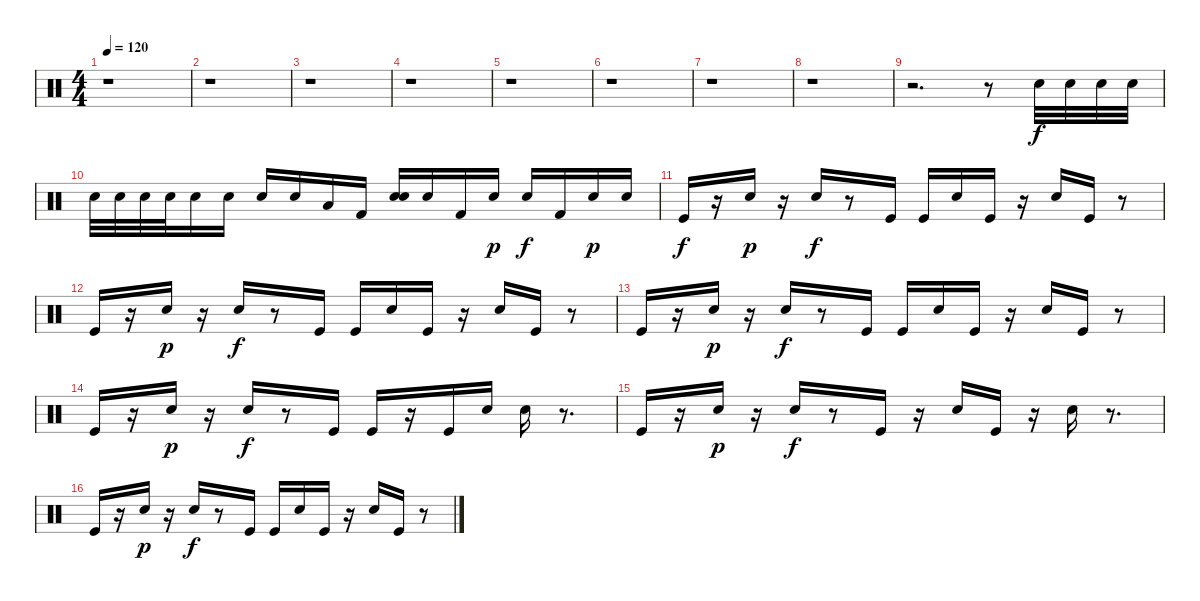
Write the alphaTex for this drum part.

\track "" {instrument percussion}
\staff {score}
\articulation defaults
\ts (4 4)
\tempo 120
\clef neutral
\ks c
r.1{dy f} |
r.1 |
r.1 |
r.1 |
r.1 |
r.1 |
r.1 |
r.1 |
r.2{d} r.8 "Electric Snare (hit)".32 "Electric Snare (hit)".32 "Electric Snare (hit)".32 "Electric Snare (hit)".32 |
"Electric Snare (hit)".32 "Electric Snare (hit)".32 "Electric Snare (hit)".32 "Electric Snare (hit)".32 "Electric Snare (hit)".16 "Electric Snare (hit)".16 "Electric Snare (hit)".16 "Electric Snare (hit)".16 "Low Tom (hit)".16 "Kick (hit) 2".16 ("Electric Snare (hit)" "Electric Snare (hit)").16 "Electric Snare (hit)".16 "Kick (hit) 2".16 "Electric Snare (hit)".16{dy p} "Electric Snare (hit)".16{dy f} "Kick (hit) 2".16 "Electric Snare (hit)".16{dy p} "Electric Snare (hit)".16 |
"Kick (hit)".16{dy f} r.16 "Electric Snare (hit)".16{dy p} r.16 "Electric Snare (hit)".16{dy f} r.8 "Kick (hit)".16 "Kick (hit)".16 "Electric Snare (hit)".16 "Kick (hit)".16 r.16 "Electric Snare (hit)".16 "Kick (hit)".16 r.8 |
"Kick (hit)".16 r.16 "Electric Snare (hit)".16{dy p} r.16 "Electric Snare (hit)".16{dy f} r.8 "Kick (hit)".16 "Kick (hit)".16 "Electric Snare (hit)".16 "Kick (hit)".16 r.16 "Electric Snare (hit)".16 "Kick (hit)".16 r.8 |
"Kick (hit)".16 r.16 "Electric Snare (hit)".16{dy p} r.16 "Electric Snare (hit)".16{dy f} r.8 "Kick (hit)".16 "Kick (hit)".16 "Electric Snare (hit)".16 "Kick (hit)".16 r.16 "Electric Snare (hit)".16 "Kick (hit)".16 r.8 |
"Kick (hit)".16 r.16 "Electric Snare (hit)".16{dy p} r.16 "Electric Snare (hit)".16{dy f} r.8 "Kick (hit)".16 "Kick (hit)".16 r.16 "Kick (hit)".16 "Electric Snare (hit)".16 "Electric Snare (hit)".16 r.8{d} |
"Kick (hit)".16 r.16 "Electric Snare (hit)".16{dy p} r.16 "Electric Snare (hit)".16{dy f} r.8 "Kick (hit)".16 r.16 "Electric Snare (hit)".16 "Kick (hit)".16 r.16 "Electric Snare (hit)".16 r.8{d} |
"Kick (hit)".16 r.16 "Electric Snare (hit)".16{dy p} r.16 "Electric Snare (hit)".16{dy f} r.8 "Kick (hit)".16 "Kick (hit)".16 "Electric Snare (hit)".16 "Kick (hit)".16 r.16 "Electric Snare (hit)".16 "Kick (hit)".16 r.8
